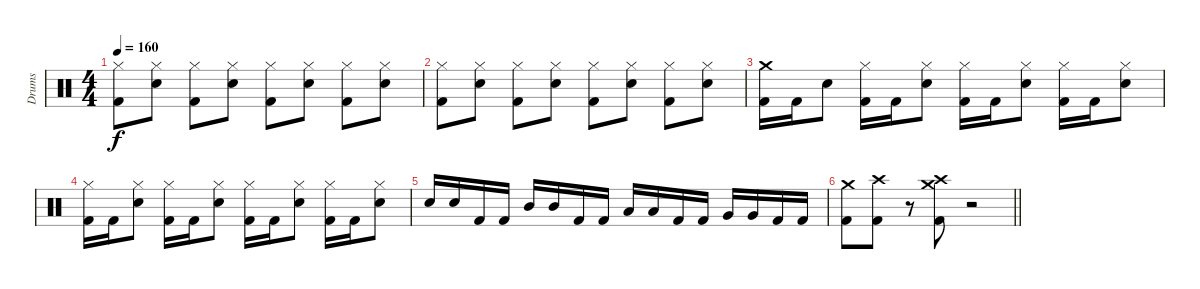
\track ("Drums" "Drums") {instrument percussion}
\staff {score}
\articulation defaults
\ts (4 4)
\tempo 160
\clef neutral
\ks c
("Hi-Hat (closed)" "Kick (hit) 2").8{dy f} ("Hi-Hat (closed)" "Snare (hit) 2").8 ("Hi-Hat (closed)" "Kick (hit) 2").8 ("Hi-Hat (closed)" "Snare (hit) 2").8 ("Hi-Hat (closed)" "Kick (hit) 2").8 ("Hi-Hat (closed)" "Snare (hit) 2").8 ("Hi-Hat (closed)" "Kick (hit) 2").8 ("Hi-Hat (closed)" "Snare (hit) 2").8 |
("Hi-Hat (closed)" "Kick (hit) 2").8 ("Hi-Hat (closed)" "Snare (hit) 2").8 ("Hi-Hat (closed)" "Kick (hit) 2").8 ("Hi-Hat (closed)" "Snare (hit) 2").8 ("Hi-Hat (closed)" "Kick (hit) 2").8 ("Hi-Hat (closed)" "Snare (hit) 2").8 ("Hi-Hat (closed)" "Kick (hit) 2").8 ("Hi-Hat (closed)" "Snare (hit) 2").8 |
("Crash medium (hit)" "Kick (hit) 2").16 "Kick (hit) 2".16 "Snare (hit) 2".8 ("Hi-Hat (closed)" "Kick (hit) 2").16 "Kick (hit) 2".16 ("Hi-Hat (closed)" "Snare (hit) 2").8 ("Hi-Hat (closed)" "Kick (hit) 2").16 "Kick (hit) 2".16 ("Hi-Hat (closed)" "Snare (hit) 2").8 ("Hi-Hat (closed)" "Kick (hit) 2").16 "Kick (hit) 2".16 ("Hi-Hat (closed)" "Snare (hit) 2").8 |
("Hi-Hat (closed)" "Kick (hit) 2").16 "Kick (hit) 2".16 ("Hi-Hat (closed)" "Snare (hit) 2").8 ("Hi-Hat (closed)" "Kick (hit) 2").16 "Kick (hit) 2".16 ("Hi-Hat (closed)" "Snare (hit) 2").8 ("Hi-Hat (closed)" "Kick (hit) 2").16 "Kick (hit) 2".16 ("Hi-Hat (closed)" "Snare (hit) 2").8 ("Hi-Hat (closed)" "Kick (hit) 2").16 "Kick (hit) 2".16 ("Hi-Hat (closed)" "Snare (hit) 2").8 |
"Snare (hit) 2".16 "Snare (hit) 2".16 "Kick (hit) 2".16 "Kick (hit) 2".16 "Mid Tom (hit)".16 "Mid Tom (hit)".16 "Kick (hit) 2".16 "Kick (hit) 2".16 "Low Tom (hit)".16 "Low Tom (hit)".16 "Kick (hit) 2".16 "Kick (hit) 2".16 "Very Low Tom (hit)".16 "Very Low Tom (hit)".16 "Kick (hit) 2".16 "Kick (hit) 2".16 |
\barLineRight lightlight
("Crash medium (hit)" "Kick (hit) 2").8 ("Crash high (hit)" "Kick (hit) 2").8 r.8 ("Crash medium (hit)" "Crash high (hit)" "Kick (hit) 2").8 r.2
